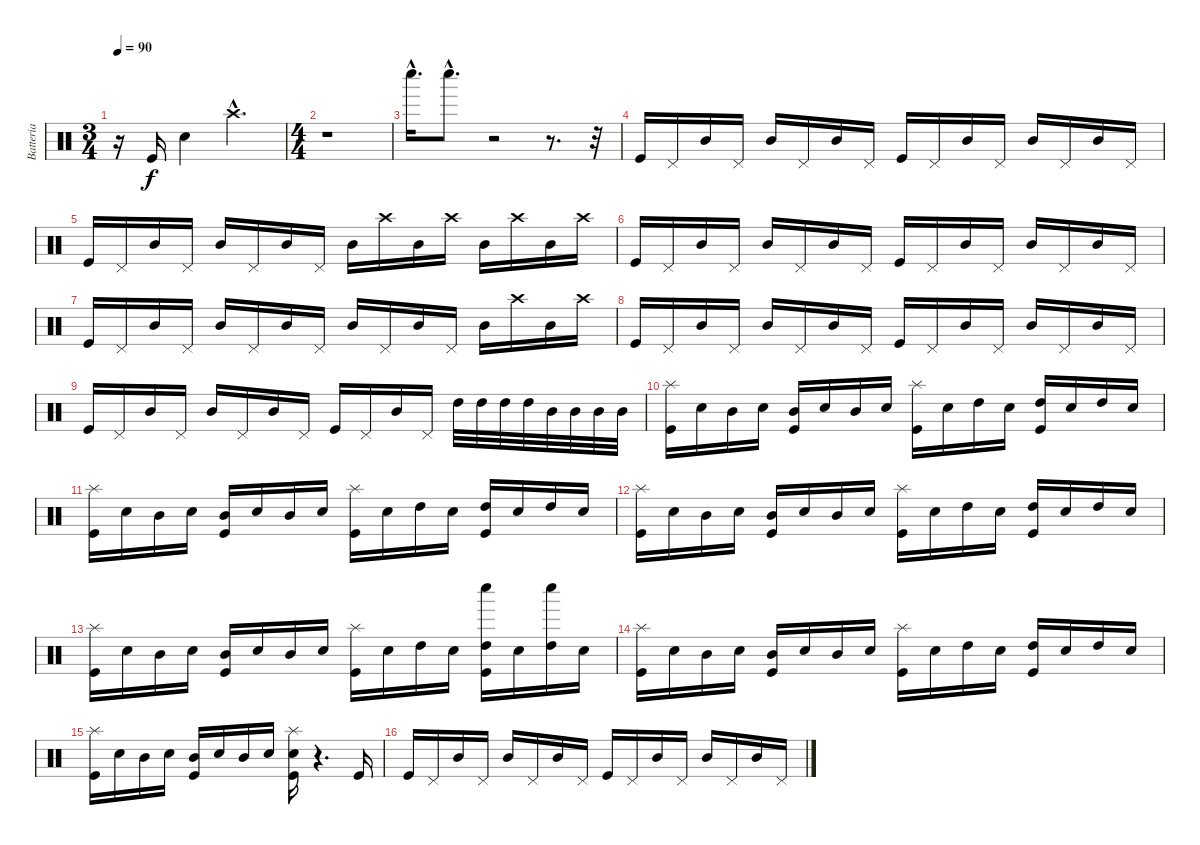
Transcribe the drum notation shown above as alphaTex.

\track ("Batteria" "Batteria") {instrument percussion}
\staff {score}
\articulation defaults
\ts (3 4)
\tempo 90
\clef neutral
\ks c
r.16{dy f} "Kick (hit)".16 "Snare (hit) 2".4 "Crash high (hit)"{hac}.4{d} |
\ts (4 4)
r.1 |
"Whistle low (hit)"{hac}.16{d} "Whistle low (hit)"{hac}.8{d} r.2 r.8{d} r.32 |
"Kick (hit)".16 "Pedal Hi-Hat (hit)".16 "Mid Tom (hit)".16 "Pedal Hi-Hat (hit)".16 "Mid Tom (hit)".16 "Pedal Hi-Hat (hit)".16 "Mid Tom (hit)".16 "Pedal Hi-Hat (hit)".16 "Kick (hit)".16 "Pedal Hi-Hat (hit)".16 "Mid Tom (hit)".16 "Pedal Hi-Hat (hit)".16 "Mid Tom (hit)".16 "Pedal Hi-Hat (hit)".16 "Mid Tom (hit)".16 "Pedal Hi-Hat (hit)".16 |
"Kick (hit)".16 "Pedal Hi-Hat (hit)".16 "Mid Tom (hit)".16 "Pedal Hi-Hat (hit)".16 "Mid Tom (hit)".16 "Pedal Hi-Hat (hit)".16 "Mid Tom (hit)".16 "Pedal Hi-Hat (hit)".16 "Mid Tom (hit)".16 "Crash high (hit)".16 "Mid Tom (hit)".16 "Crash high (hit)".16 "Mid Tom (hit)".16 "Crash high (hit)".16 "Mid Tom (hit)".16 "Crash high (hit)".16 |
"Kick (hit)".16 "Pedal Hi-Hat (hit)".16 "Mid Tom (hit)".16 "Pedal Hi-Hat (hit)".16 "Mid Tom (hit)".16 "Pedal Hi-Hat (hit)".16 "Mid Tom (hit)".16 "Pedal Hi-Hat (hit)".16 "Kick (hit)".16 "Pedal Hi-Hat (hit)".16 "Mid Tom (hit)".16 "Pedal Hi-Hat (hit)".16 "Mid Tom (hit)".16 "Pedal Hi-Hat (hit)".16 "Mid Tom (hit)".16 "Pedal Hi-Hat (hit)".16 |
"Kick (hit)".16 "Pedal Hi-Hat (hit)".16 "Mid Tom (hit)".16 "Pedal Hi-Hat (hit)".16 "Mid Tom (hit)".16 "Pedal Hi-Hat (hit)".16 "Mid Tom (hit)".16 "Pedal Hi-Hat (hit)".16 "Mid Tom (hit)".16 "Pedal Hi-Hat (hit)".16 "Mid Tom (hit)".16 "Pedal Hi-Hat (hit)".16 "Mid Tom (hit)".16 "Crash high (hit)".16 "Mid Tom (hit)".16 "Crash high (hit)".16 |
"Kick (hit)".16 "Pedal Hi-Hat (hit)".16 "Mid Tom (hit)".16 "Pedal Hi-Hat (hit)".16 "Mid Tom (hit)".16 "Pedal Hi-Hat (hit)".16 "Mid Tom (hit)".16 "Pedal Hi-Hat (hit)".16 "Kick (hit)".16 "Pedal Hi-Hat (hit)".16 "Mid Tom (hit)".16 "Pedal Hi-Hat (hit)".16 "Mid Tom (hit)".16 "Pedal Hi-Hat (hit)".16 "Mid Tom (hit)".16 "Pedal Hi-Hat (hit)".16 |
"Kick (hit)".16 "Pedal Hi-Hat (hit)".16 "Mid Tom (hit)".16 "Pedal Hi-Hat (hit)".16 "Mid Tom (hit)".16 "Pedal Hi-Hat (hit)".16 "Mid Tom (hit)".16 "Pedal Hi-Hat (hit)".16 "Kick (hit)".16 "Pedal Hi-Hat (hit)".16 "Mid Tom (hit)".16 "Pedal Hi-Hat (hit)".16 "High Tom (hit)".32 "High Tom (hit)".32 "High Tom (hit)".32 "High Tom (hit)".32 "Mid Tom (hit)".32 "Mid Tom (hit)".32 "Mid Tom (hit)".32 "Mid Tom (hit)".32 |
("Splash (hit)" "Kick (hit)").16 "Snare (hit) 2".16 "Mid Tom (hit)".16 "Snare (hit) 2".16 ("Mid Tom (hit)" "Kick (hit)").16 "Snare (hit) 2".16 "Mid Tom (hit)".16 "Snare (hit) 2".16 ("Splash (hit)" "Kick (hit)").16 "Snare (hit) 2".16 "High Tom (hit)".16 "Snare (hit) 2".16 ("High Tom (hit)" "Kick (hit)").16 "Snare (hit) 2".16 "High Tom (hit)".16 "Snare (hit) 2".16 |
("Splash (hit)" "Kick (hit)").16 "Snare (hit) 2".16 "Mid Tom (hit)".16 "Snare (hit) 2".16 ("Mid Tom (hit)" "Kick (hit)").16 "Snare (hit) 2".16 "Mid Tom (hit)".16 "Snare (hit) 2".16 ("Splash (hit)" "Kick (hit)").16 "Snare (hit) 2".16 "High Tom (hit)".16 "Snare (hit) 2".16 ("High Tom (hit)" "Kick (hit)").16 "Snare (hit) 2".16 "High Tom (hit)".16 "Snare (hit) 2".16 |
("Splash (hit)" "Kick (hit)").16 "Snare (hit) 2".16 "Mid Tom (hit)".16 "Snare (hit) 2".16 ("Mid Tom (hit)" "Kick (hit)").16 "Snare (hit) 2".16 "Mid Tom (hit)".16 "Snare (hit) 2".16 ("Splash (hit)" "Kick (hit)").16 "Snare (hit) 2".16 "High Tom (hit)".16 "Snare (hit) 2".16 ("High Tom (hit)" "Kick (hit)").16 "Snare (hit) 2".16 "High Tom (hit)".16 "Snare (hit) 2".16 |
("Splash (hit)" "Kick (hit)").16 "Snare (hit) 2".16 "Mid Tom (hit)".16 "Snare (hit) 2".16 ("Mid Tom (hit)" "Kick (hit)").16 "Snare (hit) 2".16 "Mid Tom (hit)".16 "Snare (hit) 2".16 ("Splash (hit)" "Kick (hit)").16 "Snare (hit) 2".16 "High Tom (hit)".16 "Snare (hit) 2".16 ("High Tom (hit)" "Whistle low (hit)" "Kick (hit)").16 "Snare (hit) 2".16 ("High Tom (hit)" "Whistle low (hit)").16 "Snare (hit) 2".16 |
("Splash (hit)" "Kick (hit)").16 "Snare (hit) 2".16 "Mid Tom (hit)".16 "Snare (hit) 2".16 ("Mid Tom (hit)" "Kick (hit)").16 "Snare (hit) 2".16 "Mid Tom (hit)".16 "Snare (hit) 2".16 ("Splash (hit)" "Kick (hit)").16 "Snare (hit) 2".16 "High Tom (hit)".16 "Snare (hit) 2".16 ("High Tom (hit)" "Kick (hit)").16 "Snare (hit) 2".16 "High Tom (hit)".16 "Snare (hit) 2".16 |
("Splash (hit)" "Kick (hit)").16 "Snare (hit) 2".16 "Mid Tom (hit)".16 "Snare (hit) 2".16 ("Mid Tom (hit)" "Kick (hit)").16 "Snare (hit) 2".16 "Mid Tom (hit)".16 "Snare (hit) 2".16 ("Splash (hit)" "Snare (hit) 2" "Kick (hit)").16 r.4{d} "Kick (hit)".16 |
"Kick (hit)".16 "Pedal Hi-Hat (hit)".16 "Mid Tom (hit)".16 "Pedal Hi-Hat (hit)".16 "Mid Tom (hit)".16 "Pedal Hi-Hat (hit)".16 "Mid Tom (hit)".16 "Pedal Hi-Hat (hit)".16 "Kick (hit)".16 "Pedal Hi-Hat (hit)".16 "Mid Tom (hit)".16 "Pedal Hi-Hat (hit)".16 "Mid Tom (hit)".16 "Pedal Hi-Hat (hit)".16 "Mid Tom (hit)".16 "Pedal Hi-Hat (hit)".16
